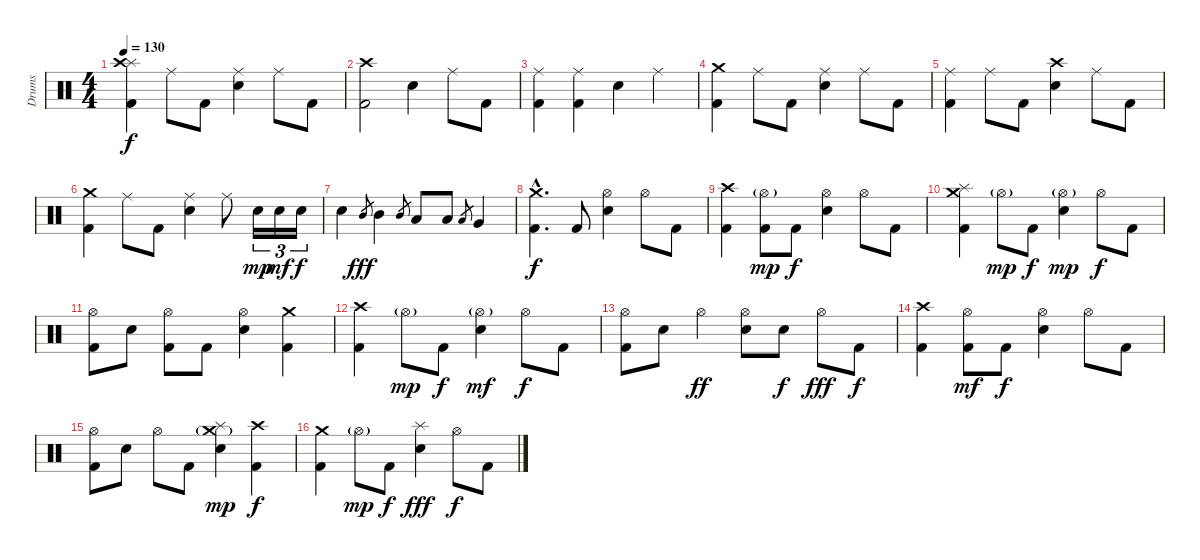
\track ("Drums" "Drums") {instrument percussion}
\staff {score}
\articulation defaults
\ts (4 4)
\tempo 130
\clef neutral
\ks c
("Splash (hit)" "Crash high (hit)" "Kick (hit) 2").4{dy f} "Ride (middle)".8 "Kick (hit) 2".8 ("Ride (middle)" "Snare (hit) 2").4 "Ride (middle)".8 "Kick (hit) 2".8 |
("Crash high (hit)" "Kick (hit) 2").2 "Snare (hit) 2".4 "Ride (middle)".8 "Kick (hit) 2".8 |
("Ride (middle)" "Kick (hit) 2").4 ("Ride (middle)" "Kick (hit) 2").4 "Snare (hit) 2".4 "Ride (middle)".4 |
("Crash medium (hit)" "Kick (hit) 2").4 "Ride (middle)".8 "Kick (hit) 2".8 ("Ride (middle)" "Snare (hit) 2").4 "Ride (middle)".8 "Kick (hit) 2".8 |
("Ride (middle)" "Kick (hit) 2").4 "Ride (middle)".8 "Kick (hit) 2".8 ("Crash high (hit)" "Snare (hit) 2").4 "Ride (middle)".8 "Kick (hit) 2".8 |
("Crash medium (hit)" "Kick (hit) 2").4 "Ride (middle)".8 "Kick (hit) 2".8 ("Ride (middle)" "Snare (hit) 2").4 "Ride (middle)".8 "Snare (hit) 2".16{tu (3 2) dy mp} "Snare (hit) 2".16{tu (3 2) dy mf} "Snare (hit) 2".16{tu (3 2) dy f} |
"Snare (hit) 2".4 "Mid Tom (hit)".8{gr dy fff} "Mid Tom (hit)".4 "Mid Tom (hit)".8{gr} "Low Tom (hit)".8 "Low Tom (hit)".8 "Low Tom (hit)".8{gr} "Very Low Tom (hit)".4 |
("Crash medium (hit)"{hac} "Kick (hit) 2"{hac}).4{d dy f} "Kick (hit) 2".8 ("Hi-Hat (open)" "Snare (hit) 2").4 "Hi-Hat (open)".8 "Kick (hit) 2".8 |
("Crash high (hit)" "Kick (hit) 2").4 ("Hi-Hat (open)"{g} "Kick (hit) 2").8{dy mp} "Kick (hit) 2".8{dy f} ("Hi-Hat (open)" "Snare (hit) 2").4 "Hi-Hat (open)".8 "Kick (hit) 2".8 |
("Crash medium (hit)" "Splash (hit)" "Kick (hit) 2").4 "Hi-Hat (open)"{g}.8{dy mp} "Kick (hit) 2".8{dy f} ("Hi-Hat (open)"{g} "Snare (hit) 2").4{dy mp} "Hi-Hat (open)".8{dy f} "Kick (hit) 2".8 |
("Hi-Hat (open)" "Kick (hit) 2").8 "Snare (hit) 2".8 ("Hi-Hat (open)" "Kick (hit) 2").8 "Kick (hit) 2".8 ("Hi-Hat (open)" "Snare (hit) 2").4 ("Crash medium (hit)" "Kick (hit) 2").4 |
("Crash high (hit)" "Kick (hit) 2").4 "Hi-Hat (open)"{g}.8{dy mp} "Kick (hit) 2".8{dy f} ("Hi-Hat (open)"{g} "Snare (hit) 2").4{dy mf} "Hi-Hat (open)".8{dy f} "Kick (hit) 2".8 |
("Hi-Hat (open)" "Kick (hit) 2").8 "Snare (hit) 2".8 "Hi-Hat (open)".4{dy ff} ("Hi-Hat (open)" "Snare (hit) 2").8 "Snare (hit) 2".8{dy f} "Hi-Hat (open)".8{dy fff} "Kick (hit) 2".8{dy f} |
("Crash high (hit)" "Kick (hit) 2").4 ("Hi-Hat (open)" "Kick (hit) 2").8{dy mf} "Kick (hit) 2".8{dy f} ("Hi-Hat (open)" "Snare (hit) 2").4 "Hi-Hat (open)".8 "Kick (hit) 2".8 |
("Hi-Hat (open)" "Kick (hit) 2").8 "Snare (hit) 2".8 "Hi-Hat (open)".8 "Kick (hit) 2".8 ("Splash (hit)" "Crash medium (hit)"{g} "Snare (hit) 2").4{dy mp} ("Crash high (hit)" "Kick (hit) 2").4{dy f} |
("Crash medium (hit)" "Kick (hit) 2").4 "Hi-Hat (open)"{g}.8{dy mp} "Kick (hit) 2".8{dy f} ("Splash (hit)" "Snare (hit) 2").4{dy fff} "Hi-Hat (open)".8{dy f} "Kick (hit) 2".8
